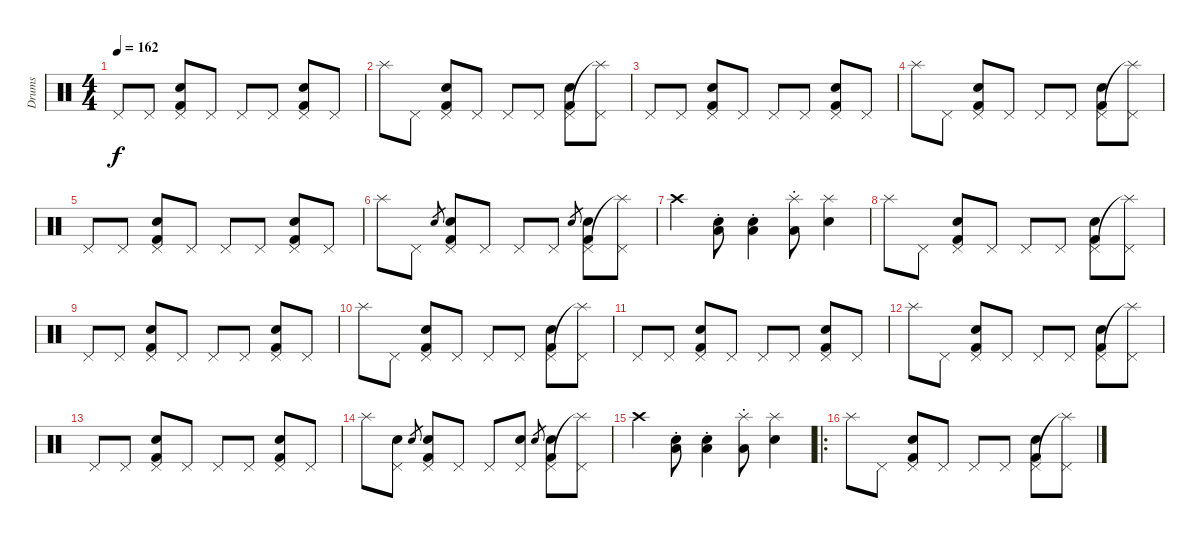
\track ("Drums" "Drums") {instrument percussion}
\staff {score}
\articulation defaults
\ts (4 4)
\tempo 162
\clef neutral
\ks c "Pedal Hi-Hat (hit)".8{dy f} "Pedal Hi-Hat (hit)".8
("Pedal Hi-Hat (hit)" "Snare (hit) 2" "Kick (hit) 2").8 "Pedal Hi-Hat (hit)".8 "Pedal Hi-Hat (hit)".8 "Pedal Hi-Hat (hit)".8 ("Pedal Hi-Hat (hit)" "Snare (hit) 2" "Kick (hit) 2").8 "Pedal Hi-Hat (hit)".8 |
"Splash (hit)".8 "Pedal Hi-Hat (hit)".8 ("Pedal Hi-Hat (hit)" "Snare (hit) 2" "Kick (hit) 2").8 "Pedal Hi-Hat (hit)".8 "Pedal Hi-Hat (hit)".8 "Pedal Hi-Hat (hit)".8 ("Pedal Hi-Hat (hit)" "Snare (hit) 2" "Kick (hit) 2").8 ("Splash (hit)"{t} "Pedal Hi-Hat (hit)").8 |
"Pedal Hi-Hat (hit)".8 "Pedal Hi-Hat (hit)".8 ("Pedal Hi-Hat (hit)" "Snare (hit) 2" "Kick (hit) 2").8 "Pedal Hi-Hat (hit)".8 "Pedal Hi-Hat (hit)".8 "Pedal Hi-Hat (hit)".8 ("Pedal Hi-Hat (hit)" "Snare (hit) 2" "Kick (hit) 2").8 "Pedal Hi-Hat (hit)".8 |
"Splash (hit)".8 "Pedal Hi-Hat (hit)".8 ("Pedal Hi-Hat (hit)" "Snare (hit) 2" "Kick (hit) 2").8 "Pedal Hi-Hat (hit)".8 "Pedal Hi-Hat (hit)".8 "Pedal Hi-Hat (hit)".8 ("Pedal Hi-Hat (hit)" "Snare (hit) 2" "Kick (hit) 2").8 ("Splash (hit)"{t} "Pedal Hi-Hat (hit)").8 |
"Pedal Hi-Hat (hit)".8 "Pedal Hi-Hat (hit)".8 ("Pedal Hi-Hat (hit)" "Snare (hit) 2" "Kick (hit) 2").8 "Pedal Hi-Hat (hit)".8 "Pedal Hi-Hat (hit)".8 "Pedal Hi-Hat (hit)".8 ("Pedal Hi-Hat (hit)" "Snare (hit) 2" "Kick (hit) 2").8 "Pedal Hi-Hat (hit)".8 |
"Splash (hit)".8 "Pedal Hi-Hat (hit)".8 "Snare (hit) 2".8{gr} ("Pedal Hi-Hat (hit)" "Snare (hit) 2" "Kick (hit) 2").8 "Pedal Hi-Hat (hit)".8 "Pedal Hi-Hat (hit)".8 "Pedal Hi-Hat (hit)".8 "Snare (hit) 2".8{gr} ("Pedal Hi-Hat (hit)" "Snare (hit) 2" "Kick (hit) 2").8 ("Splash (hit)"{t} "Pedal Hi-Hat (hit)").8 |
"Crash high (hit)".4 ("Low Floor Tom (hit)"{st} "Snare (hit) 2").8 ("Low Tom (hit)"{st} "Snare (hit) 2").4 ("Splash (hit)" "Low Floor Tom (hit)"{st}).8 ("Splash (hit)" "Snare (hit) 2").4 |
"Splash (hit)".8 "Pedal Hi-Hat (hit)".8 ("Pedal Hi-Hat (hit)" "Snare (hit) 2" "Kick (hit) 2").8 "Pedal Hi-Hat (hit)".8 "Pedal Hi-Hat (hit)".8 "Pedal Hi-Hat (hit)".8 ("Pedal Hi-Hat (hit)" "Snare (hit) 2" "Kick (hit) 2").8 ("Splash (hit)"{t} "Pedal Hi-Hat (hit)").8 |
"Pedal Hi-Hat (hit)".8 "Pedal Hi-Hat (hit)".8 ("Pedal Hi-Hat (hit)" "Snare (hit) 2" "Kick (hit) 2").8 "Pedal Hi-Hat (hit)".8 "Pedal Hi-Hat (hit)".8 "Pedal Hi-Hat (hit)".8 ("Pedal Hi-Hat (hit)" "Snare (hit) 2" "Kick (hit) 2").8 "Pedal Hi-Hat (hit)".8 |
"Splash (hit)".8 "Pedal Hi-Hat (hit)".8 ("Pedal Hi-Hat (hit)" "Snare (hit) 2" "Kick (hit) 2").8 "Pedal Hi-Hat (hit)".8 "Pedal Hi-Hat (hit)".8 "Pedal Hi-Hat (hit)".8 ("Pedal Hi-Hat (hit)" "Snare (hit) 2" "Kick (hit) 2").8 ("Splash (hit)"{t} "Pedal Hi-Hat (hit)").8 |
"Pedal Hi-Hat (hit)".8 "Pedal Hi-Hat (hit)".8 ("Pedal Hi-Hat (hit)" "Snare (hit) 2" "Kick (hit) 2").8 "Pedal Hi-Hat (hit)".8 "Pedal Hi-Hat (hit)".8 "Pedal Hi-Hat (hit)".8 ("Pedal Hi-Hat (hit)" "Snare (hit) 2" "Kick (hit) 2").8 "Pedal Hi-Hat (hit)".8 |
"Splash (hit)".8 "Pedal Hi-Hat (hit)".8 ("Pedal Hi-Hat (hit)" "Snare (hit) 2" "Kick (hit) 2").8 "Pedal Hi-Hat (hit)".8 "Pedal Hi-Hat (hit)".8 "Pedal Hi-Hat (hit)".8 ("Pedal Hi-Hat (hit)" "Snare (hit) 2" "Kick (hit) 2").8 ("Splash (hit)"{t} "Pedal Hi-Hat (hit)").8 |
"Pedal Hi-Hat (hit)".8 "Pedal Hi-Hat (hit)".8 ("Pedal Hi-Hat (hit)" "Snare (hit) 2" "Kick (hit) 2").8 "Pedal Hi-Hat (hit)".8 "Pedal Hi-Hat (hit)".8 "Pedal Hi-Hat (hit)".8 ("Pedal Hi-Hat (hit)" "Snare (hit) 2" "Kick (hit) 2").8 "Pedal Hi-Hat (hit)".8 |
"Splash (hit)".8 ("Pedal Hi-Hat (hit)" "Snare (hit) 2").8 "Snare (hit) 2".8{gr} ("Pedal Hi-Hat (hit)" "Snare (hit) 2" "Kick (hit) 2").8 "Pedal Hi-Hat (hit)".8 "Pedal Hi-Hat (hit)".8 ("Pedal Hi-Hat (hit)" "Snare (hit) 2").8 "Snare (hit) 2".8{gr} ("Pedal Hi-Hat (hit)" "Snare (hit) 2" "Kick (hit) 2").8 ("Splash (hit)"{t} "Pedal Hi-Hat (hit)").8 |
"Crash high (hit)".4 ("Low Floor Tom (hit)"{st} "Snare (hit) 2").8 ("Low Tom (hit)"{st} "Snare (hit) 2").4 ("Splash (hit)" "Low Floor Tom (hit)"{st}).8 ("Splash (hit)" "Snare (hit) 2").4 |
\ro "Splash (hit)".8 "Pedal Hi-Hat (hit)".8
("Pedal Hi-Hat (hit)" "Snare (hit) 2" "Kick (hit) 2").8 "Pedal Hi-Hat (hit)".8 "Pedal Hi-Hat (hit)".8 "Pedal Hi-Hat (hit)".8 ("Pedal Hi-Hat (hit)" "Snare (hit) 2" "Kick (hit) 2").8 ("Splash (hit)"{t} "Pedal Hi-Hat (hit)").8
